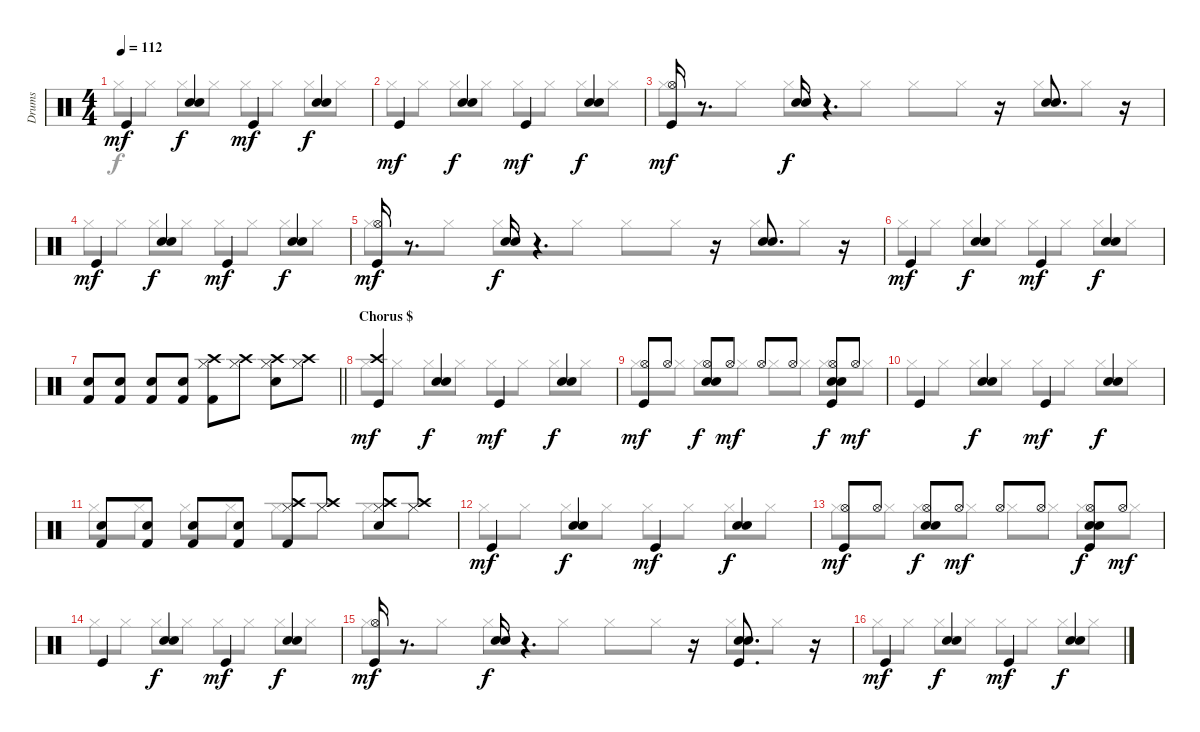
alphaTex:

\track ("Drums" "Drums") {instrument percussion}
\staff {score}
\articulation defaults
\voice
\ts (4 4)
\tempo 112
\clef neutral
\ks c "Kick (hit)".4{dy mf}
("Electric Snare (hit)" "Snare (hit) 2").4{dy f} "Kick (hit)".4{dy mf} ("Electric Snare (hit)" "Snare (hit) 2").4{dy f} |
"Kick (hit)".4{dy mf} ("Electric Snare (hit)" "Snare (hit) 2").4{dy f} "Kick (hit)".4{dy mf} ("Electric Snare (hit)" "Snare (hit) 2").4{dy f} |
("Hi-Hat (open)" "Kick (hit)").16{dy mf} r.8{d} ("Electric Snare (hit)" "Snare (hit) 2").16{dy f} r.4{d} r.16 ("Electric Snare (hit)" "Snare (hit) 2").8{d} r.16 |
"Kick (hit)".4{dy mf} ("Electric Snare (hit)" "Snare (hit) 2").4{dy f} "Kick (hit)".4{dy mf} ("Electric Snare (hit)" "Snare (hit) 2").4{dy f} |
("Hi-Hat (open)" "Kick (hit)").16{dy mf} r.8{d} ("Electric Snare (hit)" "Snare (hit) 2").16{dy f} r.4{d} r.16 ("Electric Snare (hit)" "Snare (hit) 2").8{d} r.16 |
"Kick (hit)".4{dy mf} ("Electric Snare (hit)" "Snare (hit) 2").4{dy f} "Kick (hit)".4{dy mf} ("Electric Snare (hit)" "Snare (hit) 2").4{dy f} |
\barLineRight lightlight
("Snare (hit) 2" "Kick (hit) 2").8 ("Snare (hit) 2" "Kick (hit) 2").8 ("Snare (hit) 2" "Kick (hit) 2").8 ("Snare (hit) 2" "Kick (hit) 2").8 ("Crash high (hit)" "Kick (hit) 2" "Hi-Hat (closed)").8 ("Crash high (hit)" "Hi-Hat (closed)").8 ("Crash high (hit)" "Snare (hit) 2" "Hi-Hat (closed)").8 ("Crash high (hit)" "Hi-Hat (closed)").8 |
\section ("" "Chorus $")
("Kick (hit)" "Crash high (hit)").4{dy mf} ("Electric Snare (hit)" "Snare (hit) 2").4{dy f} "Kick (hit)".4{dy mf} ("Electric Snare (hit)" "Snare (hit) 2").4{dy f} |
("Hi-Hat (open)" "Kick (hit)").8{dy mf} "Hi-Hat (open)".8 ("Hi-Hat (open)" "Electric Snare (hit)" "Snare (hit) 2").8{dy f} "Hi-Hat (open)".8{dy mf} "Hi-Hat (open)".8 "Hi-Hat (open)".8 ("Hi-Hat (open)" "Electric Snare (hit)" "Snare (hit) 2" "Kick (hit)").8{dy f} "Hi-Hat (open)".8{dy mf} |
"Kick (hit)".4 ("Electric Snare (hit)" "Snare (hit) 2").4{dy f} "Kick (hit)".4{dy mf} ("Electric Snare (hit)" "Snare (hit) 2").4{dy f} |
("Snare (hit) 2" "Kick (hit) 2").8 ("Snare (hit) 2" "Kick (hit) 2").8 ("Snare (hit) 2" "Kick (hit) 2").8 ("Snare (hit) 2" "Kick (hit) 2").8 ("Crash high (hit)" "Kick (hit) 2" "Hi-Hat (closed)").8 ("Crash high (hit)" "Hi-Hat (closed)").8 ("Crash high (hit)" "Snare (hit) 2" "Hi-Hat (closed)").8 ("Crash high (hit)" "Hi-Hat (closed)").8 |
"Kick (hit)".4{dy mf} ("Electric Snare (hit)" "Snare (hit) 2").4{dy f} "Kick (hit)".4{dy mf} ("Electric Snare (hit)" "Snare (hit) 2").4{dy f} |
("Hi-Hat (open)" "Kick (hit)").8{dy mf} "Hi-Hat (open)".8 ("Hi-Hat (open)" "Electric Snare (hit)" "Snare (hit) 2").8{dy f} "Hi-Hat (open)".8{dy mf} "Hi-Hat (open)".8 "Hi-Hat (open)".8 ("Hi-Hat (open)" "Electric Snare (hit)" "Snare (hit) 2" "Kick (hit)").8{dy f} "Hi-Hat (open)".8{dy mf} |
"Kick (hit)".4 ("Electric Snare (hit)" "Snare (hit) 2").4{dy f} "Kick (hit)".4{dy mf} ("Electric Snare (hit)" "Snare (hit) 2").4{dy f} |
("Hi-Hat (open)" "Kick (hit)").16{dy mf} r.8{d} ("Electric Snare (hit)" "Snare (hit) 2").16{dy f} r.4{d} r.16 ("Electric Snare (hit)" "Snare (hit) 2" "Kick (hit)").8{d} r.16 |
"Kick (hit)".4{dy mf} ("Electric Snare (hit)" "Snare (hit) 2").4{dy f} "Kick (hit)".4{dy mf} ("Electric Snare (hit)" "Snare (hit) 2").4{dy f}
\voice
\clef neutral
\ottava regular
\simile none
\ks c "Hi-Hat (closed)".8{dy f} "Hi-Hat (closed)".8 "Hi-Hat (closed)".8 "Hi-Hat (closed)".8 "Hi-Hat (closed)".8 "Hi-Hat (closed)".8 "Hi-Hat (closed)".8 "Hi-Hat (closed)".8
|
"Hi-Hat (closed)".8 "Hi-Hat (closed)".8 "Hi-Hat (closed)".8 "Hi-Hat (closed)".8 "Hi-Hat (closed)".8 "Hi-Hat (closed)".8 "Hi-Hat (closed)".8 "Hi-Hat (closed)".8 |
"Hi-Hat (closed)".8 "Hi-Hat (closed)".8 "Hi-Hat (closed)".8 "Hi-Hat (closed)".8 "Hi-Hat (closed)".8 "Hi-Hat (closed)".8 "Hi-Hat (closed)".8 "Hi-Hat (closed)".8 |
"Hi-Hat (closed)".8 "Hi-Hat (closed)".8 "Hi-Hat (closed)".8 "Hi-Hat (closed)".8 "Hi-Hat (closed)".8 "Hi-Hat (closed)".8 "Hi-Hat (closed)".8 "Hi-Hat (closed)".8 |
"Hi-Hat (closed)".8 "Hi-Hat (closed)".8 "Hi-Hat (closed)".8 "Hi-Hat (closed)".8 "Hi-Hat (closed)".8 "Hi-Hat (closed)".8 "Hi-Hat (closed)".8 "Hi-Hat (closed)".8 |
"Hi-Hat (closed)".8 "Hi-Hat (closed)".8 "Hi-Hat (closed)".8 "Hi-Hat (closed)".8 "Hi-Hat (closed)".8 "Hi-Hat (closed)".8 "Hi-Hat (closed)".8 "Hi-Hat (closed)".8 |
\barLineRight lightlight
|
"Hi-Hat (closed)".8 "Hi-Hat (closed)".8 "Hi-Hat (closed)".8 "Hi-Hat (closed)".8 "Hi-Hat (closed)".8 "Hi-Hat (closed)".8 "Hi-Hat (closed)".8 "Hi-Hat (closed)".8 |
"Hi-Hat (closed)".8 "Hi-Hat (closed)".8 "Hi-Hat (closed)".8 "Hi-Hat (closed)".8 "Hi-Hat (closed)".8 "Hi-Hat (closed)".8 "Hi-Hat (closed)".8 "Hi-Hat (closed)".8 |
"Hi-Hat (closed)".8 "Hi-Hat (closed)".8 "Hi-Hat (closed)".8 "Hi-Hat (closed)".8 "Hi-Hat (closed)".8 "Hi-Hat (closed)".8 "Hi-Hat (closed)".8 "Hi-Hat (closed)".8 |
"Hi-Hat (closed)".8 "Hi-Hat (closed)".8 "Hi-Hat (closed)".8 "Hi-Hat (closed)".8 "Hi-Hat (closed)".8 "Hi-Hat (closed)".8 "Hi-Hat (closed)".8 "Hi-Hat (closed)".8 |
"Hi-Hat (closed)".8 "Hi-Hat (closed)".8 "Hi-Hat (closed)".8 "Hi-Hat (closed)".8 "Hi-Hat (closed)".8 "Hi-Hat (closed)".8 "Hi-Hat (closed)".8 "Hi-Hat (closed)".8 |
"Hi-Hat (closed)".8 "Hi-Hat (closed)".8 "Hi-Hat (closed)".8 "Hi-Hat (closed)".8 "Hi-Hat (closed)".8 "Hi-Hat (closed)".8 "Hi-Hat (closed)".8 "Hi-Hat (closed)".8 |
"Hi-Hat (closed)".8 "Hi-Hat (closed)".8 "Hi-Hat (closed)".8 "Hi-Hat (closed)".8 "Hi-Hat (closed)".8 "Hi-Hat (closed)".8 "Hi-Hat (closed)".8 "Hi-Hat (closed)".8 |
"Hi-Hat (closed)".8 "Hi-Hat (closed)".8 "Hi-Hat (closed)".8 "Hi-Hat (closed)".8 "Hi-Hat (closed)".8 "Hi-Hat (closed)".8 "Hi-Hat (closed)".8 "Hi-Hat (closed)".8 |
"Hi-Hat (closed)".8 "Hi-Hat (closed)".8 "Hi-Hat (closed)".8 "Hi-Hat (closed)".8 "Hi-Hat (closed)".8 "Hi-Hat (closed)".8 "Hi-Hat (closed)".8 "Hi-Hat (closed)".8
